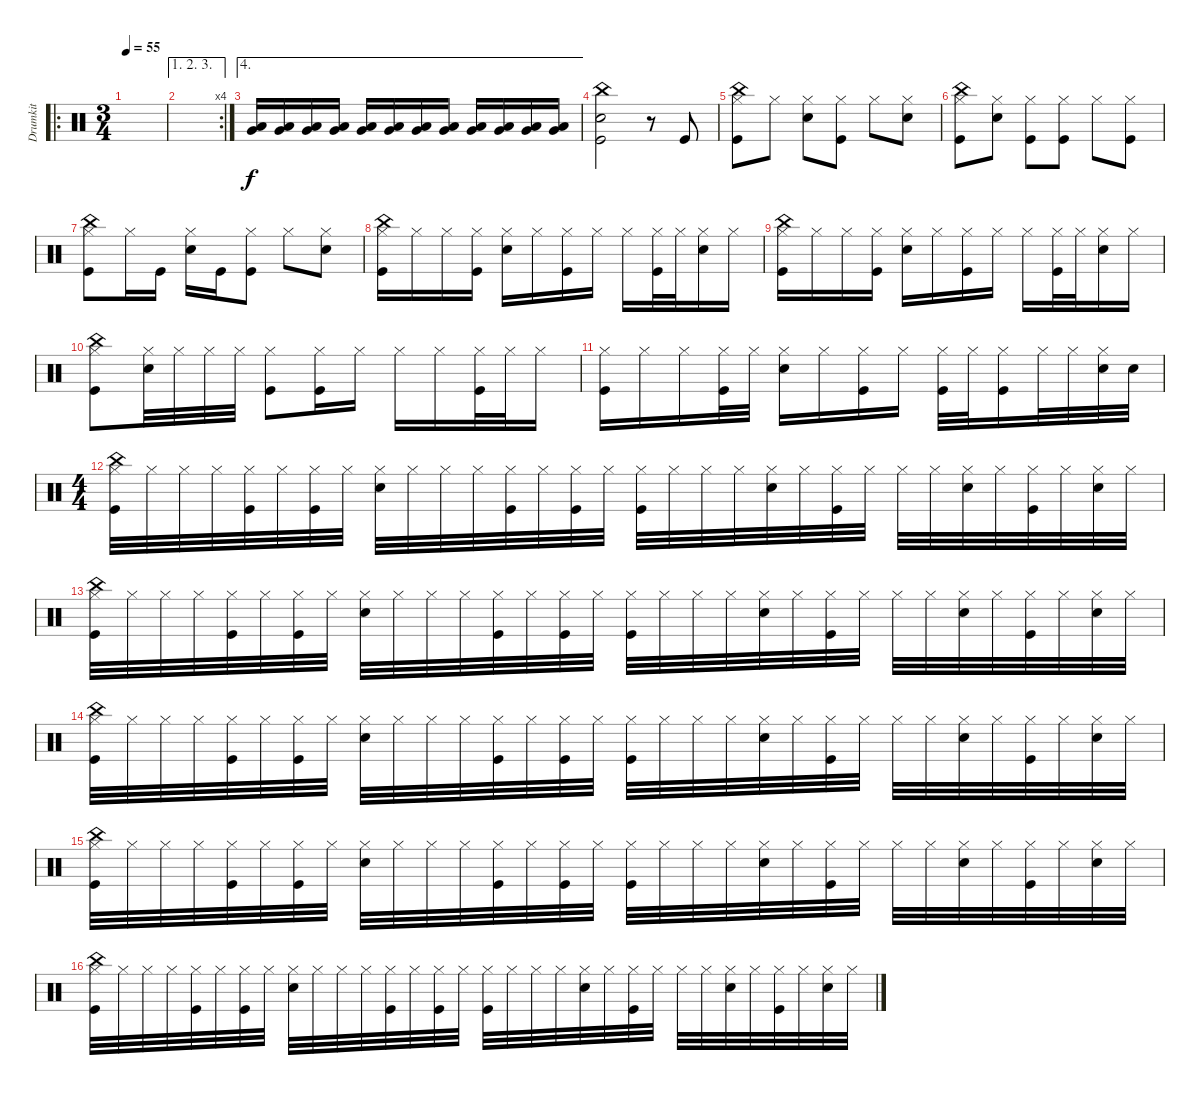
\track ("Drumkit" "Drumkit") {instrument percussion}
\staff {score}
\articulation defaults
\ro
\ts (3 4)
\tempo 55
\clef neutral
\ks c
|
\ae (1 2 3)
\rc 4
|
\ae 4
("Very Low Tom (hit)" "Low Tom (hit)").16 ("Very Low Tom (hit)" "Low Tom (hit)").16 ("Very Low Tom (hit)" "Low Tom (hit)").16 ("Very Low Tom (hit)" "Low Tom (hit)").16 ("Very Low Tom (hit)" "Low Tom (hit)").16 ("Very Low Tom (hit)" "Low Tom (hit)").16 ("Very Low Tom (hit)" "Low Tom (hit)").16 ("Very Low Tom (hit)" "Low Tom (hit)").16 ("Very Low Tom (hit)" "Low Tom (hit)").16 ("Very Low Tom (hit)" "Low Tom (hit)").16 ("Very Low Tom (hit)" "Low Tom (hit)").16 ("Very Low Tom (hit)" "Low Tom (hit)").16 |
("China (hit)" "Kick (hit)" "Snare (hit) 2").2 r.8 "Kick (hit)".8 |
("Hi-Hat (closed)" "Kick (hit)" "China (hit)").8 "Hi-Hat (closed)".8 ("Hi-Hat (closed)" "Snare (hit) 2").8 ("Hi-Hat (closed)" "Kick (hit)").8 "Hi-Hat (closed)".8 ("Hi-Hat (closed)" "Snare (hit) 2").8 |
("Hi-Hat (closed)" "Kick (hit)" "China (hit)").8 ("Hi-Hat (closed)" "Snare (hit) 2").8 ("Hi-Hat (closed)" "Kick (hit)").8 ("Hi-Hat (closed)" "Kick (hit)").8 "Hi-Hat (closed)".8 ("Hi-Hat (closed)" "Kick (hit)").8 |
("Hi-Hat (closed)" "Kick (hit)" "China (hit)").8 "Hi-Hat (closed)".16 "Kick (hit)".16 ("Snare (hit) 2" "Hi-Hat (closed)").16 "Kick (hit)".16 ("Kick (hit)" "Hi-Hat (closed)").8 "Hi-Hat (closed)".8 ("Hi-Hat (closed)" "Snare (hit) 2").8 |
("Hi-Hat (closed)" "Kick (hit)" "China (hit)").16 "Hi-Hat (closed)".16 "Hi-Hat (closed)".16 ("Hi-Hat (closed)" "Kick (hit)").16 ("Hi-Hat (closed)" "Snare (hit) 2").16 "Hi-Hat (closed)".16 ("Hi-Hat (closed)" "Kick (hit)").16 "Hi-Hat (closed)".16 "Hi-Hat (closed)".16 ("Hi-Hat (closed)" "Kick (hit)").32 "Hi-Hat (closed)".32 ("Hi-Hat (closed)" "Snare (hit) 2").16 "Hi-Hat (closed)".16 |
("Hi-Hat (closed)" "Kick (hit)" "China (hit)").16 "Hi-Hat (closed)".16 "Hi-Hat (closed)".16 ("Hi-Hat (closed)" "Kick (hit)").16 ("Hi-Hat (closed)" "Snare (hit) 2").16 "Hi-Hat (closed)".16 ("Hi-Hat (closed)" "Kick (hit)").16 "Hi-Hat (closed)".16 "Hi-Hat (closed)".16 ("Hi-Hat (closed)" "Kick (hit)").32 "Hi-Hat (closed)".32 ("Hi-Hat (closed)" "Snare (hit) 2").16 "Hi-Hat (closed)".16 |
("Hi-Hat (closed)" "Kick (hit)" "China (hit)").8 ("Hi-Hat (closed)" "Snare (hit) 2").32 "Hi-Hat (closed)".32 "Hi-Hat (closed)".32 "Hi-Hat (closed)".32 ("Hi-Hat (closed)" "Kick (hit)").8 ("Hi-Hat (closed)" "Kick (hit)").16 "Hi-Hat (closed)".16 "Hi-Hat (closed)".16 "Hi-Hat (closed)".16 ("Hi-Hat (closed)" "Kick (hit)").32 "Hi-Hat (closed)".32 "Hi-Hat (closed)".16 |
("Hi-Hat (closed)" "Kick (hit)").16 "Hi-Hat (closed)".16 "Hi-Hat (closed)".16 ("Hi-Hat (closed)" "Kick (hit)").32 "Hi-Hat (closed)".32 ("Hi-Hat (closed)" "Snare (hit) 2").16 "Hi-Hat (closed)".16 ("Hi-Hat (closed)" "Kick (hit)").16 "Hi-Hat (closed)".16 ("Hi-Hat (closed)" "Kick (hit)").32 "Hi-Hat (closed)".32 ("Hi-Hat (closed)" "Kick (hit)").16 "Hi-Hat (closed)".32 "Hi-Hat (closed)".32 ("Hi-Hat (closed)" "Snare (hit) 2").32 "Snare (hit) 2".32 |
\ts (4 4)
("Hi-Hat (closed)" "Kick (hit)" "China (hit)").32 "Hi-Hat (closed)".32 "Hi-Hat (closed)".32 "Hi-Hat (closed)".32 ("Hi-Hat (closed)" "Kick (hit)").32 "Hi-Hat (closed)".32 ("Hi-Hat (closed)" "Kick (hit)").32 "Hi-Hat (closed)".32 ("Hi-Hat (closed)" "Snare (hit) 2").32 "Hi-Hat (closed)".32 "Hi-Hat (closed)".32 "Hi-Hat (closed)".32 ("Hi-Hat (closed)" "Kick (hit)").32 "Hi-Hat (closed)".32 ("Hi-Hat (closed)" "Kick (hit)").32 "Hi-Hat (closed)".32 ("Hi-Hat (closed)" "Kick (hit)").32 "Hi-Hat (closed)".32 "Hi-Hat (closed)".32 "Hi-Hat (closed)".32 ("Hi-Hat (closed)" "Snare (hit) 2").32 "Hi-Hat (closed)".32 ("Hi-Hat (closed)" "Kick (hit)").32 "Hi-Hat (closed)".32 "Hi-Hat (closed)".32 "Hi-Hat (closed)".32 ("Hi-Hat (closed)" "Snare (hit) 2").32 "Hi-Hat (closed)".32 ("Hi-Hat (closed)" "Kick (hit)").32 "Hi-Hat (closed)".32 ("Hi-Hat (closed)" "Snare (hit) 2").32 "Hi-Hat (closed)".32 |
("Hi-Hat (closed)" "Kick (hit)" "China (hit)").32 "Hi-Hat (closed)".32 "Hi-Hat (closed)".32 "Hi-Hat (closed)".32 ("Hi-Hat (closed)" "Kick (hit)").32 "Hi-Hat (closed)".32 ("Hi-Hat (closed)" "Kick (hit)").32 "Hi-Hat (closed)".32 ("Hi-Hat (closed)" "Snare (hit) 2").32 "Hi-Hat (closed)".32 "Hi-Hat (closed)".32 "Hi-Hat (closed)".32 ("Hi-Hat (closed)" "Kick (hit)").32 "Hi-Hat (closed)".32 ("Hi-Hat (closed)" "Kick (hit)").32 "Hi-Hat (closed)".32 ("Hi-Hat (closed)" "Kick (hit)").32 "Hi-Hat (closed)".32 "Hi-Hat (closed)".32 "Hi-Hat (closed)".32 ("Hi-Hat (closed)" "Snare (hit) 2").32 "Hi-Hat (closed)".32 ("Hi-Hat (closed)" "Kick (hit)").32 "Hi-Hat (closed)".32 "Hi-Hat (closed)".32 "Hi-Hat (closed)".32 ("Hi-Hat (closed)" "Snare (hit) 2").32 "Hi-Hat (closed)".32 ("Hi-Hat (closed)" "Kick (hit)").32 "Hi-Hat (closed)".32 ("Hi-Hat (closed)" "Snare (hit) 2").32 "Hi-Hat (closed)".32 |
("Hi-Hat (closed)" "Kick (hit)" "China (hit)").32 "Hi-Hat (closed)".32 "Hi-Hat (closed)".32 "Hi-Hat (closed)".32 ("Hi-Hat (closed)" "Kick (hit)").32 "Hi-Hat (closed)".32 ("Hi-Hat (closed)" "Kick (hit)").32 "Hi-Hat (closed)".32 ("Hi-Hat (closed)" "Snare (hit) 2").32 "Hi-Hat (closed)".32 "Hi-Hat (closed)".32 "Hi-Hat (closed)".32 ("Hi-Hat (closed)" "Kick (hit)").32 "Hi-Hat (closed)".32 ("Hi-Hat (closed)" "Kick (hit)").32 "Hi-Hat (closed)".32 ("Hi-Hat (closed)" "Kick (hit)").32 "Hi-Hat (closed)".32 "Hi-Hat (closed)".32 "Hi-Hat (closed)".32 ("Hi-Hat (closed)" "Snare (hit) 2").32 "Hi-Hat (closed)".32 ("Hi-Hat (closed)" "Kick (hit)").32 "Hi-Hat (closed)".32 "Hi-Hat (closed)".32 "Hi-Hat (closed)".32 ("Hi-Hat (closed)" "Snare (hit) 2").32 "Hi-Hat (closed)".32 ("Hi-Hat (closed)" "Kick (hit)").32 "Hi-Hat (closed)".32 ("Hi-Hat (closed)" "Snare (hit) 2").32 "Hi-Hat (closed)".32 |
("Hi-Hat (closed)" "Kick (hit)" "China (hit)").32 "Hi-Hat (closed)".32 "Hi-Hat (closed)".32 "Hi-Hat (closed)".32 ("Hi-Hat (closed)" "Kick (hit)").32 "Hi-Hat (closed)".32 ("Hi-Hat (closed)" "Kick (hit)").32 "Hi-Hat (closed)".32 ("Hi-Hat (closed)" "Snare (hit) 2").32 "Hi-Hat (closed)".32 "Hi-Hat (closed)".32 "Hi-Hat (closed)".32 ("Hi-Hat (closed)" "Kick (hit)").32 "Hi-Hat (closed)".32 ("Hi-Hat (closed)" "Kick (hit)").32 "Hi-Hat (closed)".32 ("Hi-Hat (closed)" "Kick (hit)").32 "Hi-Hat (closed)".32 "Hi-Hat (closed)".32 "Hi-Hat (closed)".32 ("Hi-Hat (closed)" "Snare (hit) 2").32 "Hi-Hat (closed)".32 ("Hi-Hat (closed)" "Kick (hit)").32 "Hi-Hat (closed)".32 "Hi-Hat (closed)".32 "Hi-Hat (closed)".32 ("Hi-Hat (closed)" "Snare (hit) 2").32 "Hi-Hat (closed)".32 ("Hi-Hat (closed)" "Kick (hit)").32 "Hi-Hat (closed)".32 ("Hi-Hat (closed)" "Snare (hit) 2").32 "Hi-Hat (closed)".32 |
("Hi-Hat (closed)" "Kick (hit)" "China (hit)").32 "Hi-Hat (closed)".32 "Hi-Hat (closed)".32 "Hi-Hat (closed)".32 ("Hi-Hat (closed)" "Kick (hit)").32 "Hi-Hat (closed)".32 ("Hi-Hat (closed)" "Kick (hit)").32 "Hi-Hat (closed)".32 ("Hi-Hat (closed)" "Snare (hit) 2").32 "Hi-Hat (closed)".32 "Hi-Hat (closed)".32 "Hi-Hat (closed)".32 ("Hi-Hat (closed)" "Kick (hit)").32 "Hi-Hat (closed)".32 ("Hi-Hat (closed)" "Kick (hit)").32 "Hi-Hat (closed)".32 ("Hi-Hat (closed)" "Kick (hit)").32 "Hi-Hat (closed)".32 "Hi-Hat (closed)".32 "Hi-Hat (closed)".32 ("Hi-Hat (closed)" "Snare (hit) 2").32 "Hi-Hat (closed)".32 ("Hi-Hat (closed)" "Kick (hit)").32 "Hi-Hat (closed)".32 "Hi-Hat (closed)".32 "Hi-Hat (closed)".32 ("Hi-Hat (closed)" "Snare (hit) 2").32 "Hi-Hat (closed)".32 ("Hi-Hat (closed)" "Kick (hit)").32 "Hi-Hat (closed)".32 ("Hi-Hat (closed)" "Snare (hit) 2").32 "Hi-Hat (closed)".32
